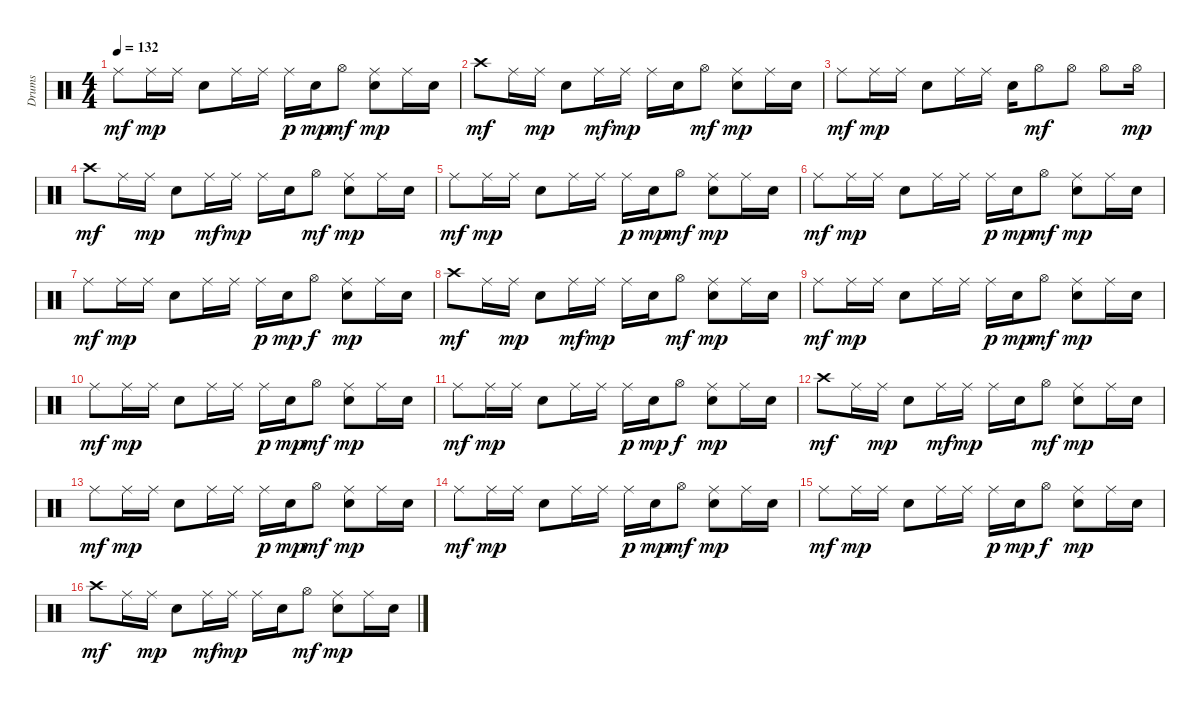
\track ("Drums" "Drums") {instrument percussion}
\staff {score}
\articulation defaults
\ts (4 4)
\tempo 132
\clef neutral
\ks c "Ride (middle)".8{dy mf} "Ride (middle)".16{dy mp} "Ride (middle)".16 "Electric Snare (hit)".8 "Ride (middle)".16 "Ride (middle)".16 "Ride (middle)".16{dy p} "Electric Snare (hit)".16{dy mp} "Hi-Hat (open)".8{dy mf}
("Ride (middle)" "Electric Snare (hit)").8{dy mp} "Ride (middle)".16 "Electric Snare (hit)".16 |
"Crash high (hit)".8{dy mf} "Ride (middle)".16 "Ride (middle)".16{dy mp} "Electric Snare (hit)".8 "Ride (middle)".16{dy mf} "Ride (middle)".16{dy mp} "Ride (middle)".16 "Electric Snare (hit)".16 "Hi-Hat (open)".8{dy mf} ("Ride (middle)" "Electric Snare (hit)").8{dy mp} "Ride (middle)".16 "Electric Snare (hit)".16 |
"Ride (middle)".8{dy mf} "Ride (middle)".16{dy mp} "Ride (middle)".16 "Electric Snare (hit)".8 "Ride (middle)".16 "Ride (middle)".16 "Electric Snare (hit)".16 "Hi-Hat (open)".8{dy mf} "Hi-Hat (open)".8 "Hi-Hat (open)".8 "Hi-Hat (open)".16{dy mp} |
"Crash high (hit)".8{dy mf} "Ride (middle)".16 "Ride (middle)".16{dy mp} "Electric Snare (hit)".8 "Ride (middle)".16{dy mf} "Ride (middle)".16{dy mp} "Ride (middle)".16 "Electric Snare (hit)".16 "Hi-Hat (open)".8{dy mf} ("Ride (middle)" "Electric Snare (hit)").8{dy mp} "Ride (middle)".16 "Electric Snare (hit)".16 |
"Ride (middle)".8{dy mf} "Ride (middle)".16{dy mp} "Ride (middle)".16 "Electric Snare (hit)".8 "Ride (middle)".16 "Ride (middle)".16 "Ride (middle)".16{dy p} "Electric Snare (hit)".16{dy mp} "Hi-Hat (open)".8{dy mf} ("Ride (middle)" "Electric Snare (hit)").8{dy mp} "Ride (middle)".16 "Electric Snare (hit)".16 |
"Ride (middle)".8{dy mf} "Ride (middle)".16{dy mp} "Ride (middle)".16 "Electric Snare (hit)".8 "Ride (middle)".16 "Ride (middle)".16 "Ride (middle)".16{dy p} "Electric Snare (hit)".16{dy mp} "Hi-Hat (open)".8{dy mf} ("Electric Snare (hit)" "Ride (middle)").8{dy mp} "Ride (middle)".16 "Electric Snare (hit)".16 |
"Ride (middle)".8{dy mf} "Ride (middle)".16{dy mp} "Ride (middle)".16 "Electric Snare (hit)".8 "Ride (middle)".16 "Ride (middle)".16 "Ride (middle)".16{dy p} "Electric Snare (hit)".16{dy mp} "Hi-Hat (open)".8{dy f} ("Electric Snare (hit)" "Ride (middle)").8{dy mp} "Ride (middle)".16 "Electric Snare (hit)".16 |
"Crash high (hit)".8{dy mf} "Ride (middle)".16 "Ride (middle)".16{dy mp} "Electric Snare (hit)".8 "Ride (middle)".16{dy mf} "Ride (middle)".16{dy mp} "Ride (middle)".16 "Electric Snare (hit)".16 "Hi-Hat (open)".8{dy mf} ("Electric Snare (hit)" "Ride (middle)").8{dy mp} "Ride (middle)".16 "Electric Snare (hit)".16 |
"Ride (middle)".8{dy mf} "Ride (middle)".16{dy mp} "Ride (middle)".16 "Electric Snare (hit)".8 "Ride (middle)".16 "Ride (middle)".16 "Ride (middle)".16{dy p} "Electric Snare (hit)".16{dy mp} "Hi-Hat (open)".8{dy mf} ("Ride (middle)" "Electric Snare (hit)").8{dy mp} "Ride (middle)".16 "Electric Snare (hit)".16 |
"Ride (middle)".8{dy mf} "Ride (middle)".16{dy mp} "Ride (middle)".16 "Electric Snare (hit)".8 "Ride (middle)".16 "Ride (middle)".16 "Ride (middle)".16{dy p} "Electric Snare (hit)".16{dy mp} "Hi-Hat (open)".8{dy mf} ("Ride (middle)" "Electric Snare (hit)").8{dy mp} "Ride (middle)".16 "Electric Snare (hit)".16 |
"Ride (middle)".8{dy mf} "Ride (middle)".16{dy mp} "Ride (middle)".16 "Electric Snare (hit)".8 "Ride (middle)".16 "Ride (middle)".16 "Ride (middle)".16{dy p} "Electric Snare (hit)".16{dy mp} "Hi-Hat (open)".8{dy f} ("Electric Snare (hit)" "Ride (middle)").8{dy mp} "Ride (middle)".16 "Electric Snare (hit)".16 |
"Crash high (hit)".8{dy mf} "Ride (middle)".16 "Ride (middle)".16{dy mp} "Electric Snare (hit)".8 "Ride (middle)".16{dy mf} "Ride (middle)".16{dy mp} "Ride (middle)".16 "Electric Snare (hit)".16 "Hi-Hat (open)".8{dy mf} ("Ride (middle)" "Electric Snare (hit)").8{dy mp} "Ride (middle)".16 "Electric Snare (hit)".16 |
"Ride (middle)".8{dy mf} "Ride (middle)".16{dy mp} "Ride (middle)".16 "Electric Snare (hit)".8 "Ride (middle)".16 "Ride (middle)".16 "Ride (middle)".16{dy p} "Electric Snare (hit)".16{dy mp} "Hi-Hat (open)".8{dy mf} ("Ride (middle)" "Electric Snare (hit)").8{dy mp} "Ride (middle)".16 "Electric Snare (hit)".16 |
"Ride (middle)".8{dy mf} "Ride (middle)".16{dy mp} "Ride (middle)".16 "Electric Snare (hit)".8 "Ride (middle)".16 "Ride (middle)".16 "Ride (middle)".16{dy p} "Electric Snare (hit)".16{dy mp} "Hi-Hat (open)".8{dy mf} ("Electric Snare (hit)" "Ride (middle)").8{dy mp} "Ride (middle)".16 "Electric Snare (hit)".16 |
"Ride (middle)".8{dy mf} "Ride (middle)".16{dy mp} "Ride (middle)".16 "Electric Snare (hit)".8 "Ride (middle)".16 "Ride (middle)".16 "Ride (middle)".16{dy p} "Electric Snare (hit)".16{dy mp} "Hi-Hat (open)".8{dy f} ("Electric Snare (hit)" "Ride (middle)").8{dy mp} "Ride (middle)".16 "Electric Snare (hit)".16 |
"Crash high (hit)".8{dy mf} "Ride (middle)".16 "Ride (middle)".16{dy mp} "Electric Snare (hit)".8 "Ride (middle)".16{dy mf} "Ride (middle)".16{dy mp} "Ride (middle)".16 "Electric Snare (hit)".16 "Hi-Hat (open)".8{dy mf} ("Ride (middle)" "Electric Snare (hit)").8{dy mp} "Ride (middle)".16 "Electric Snare (hit)".16
